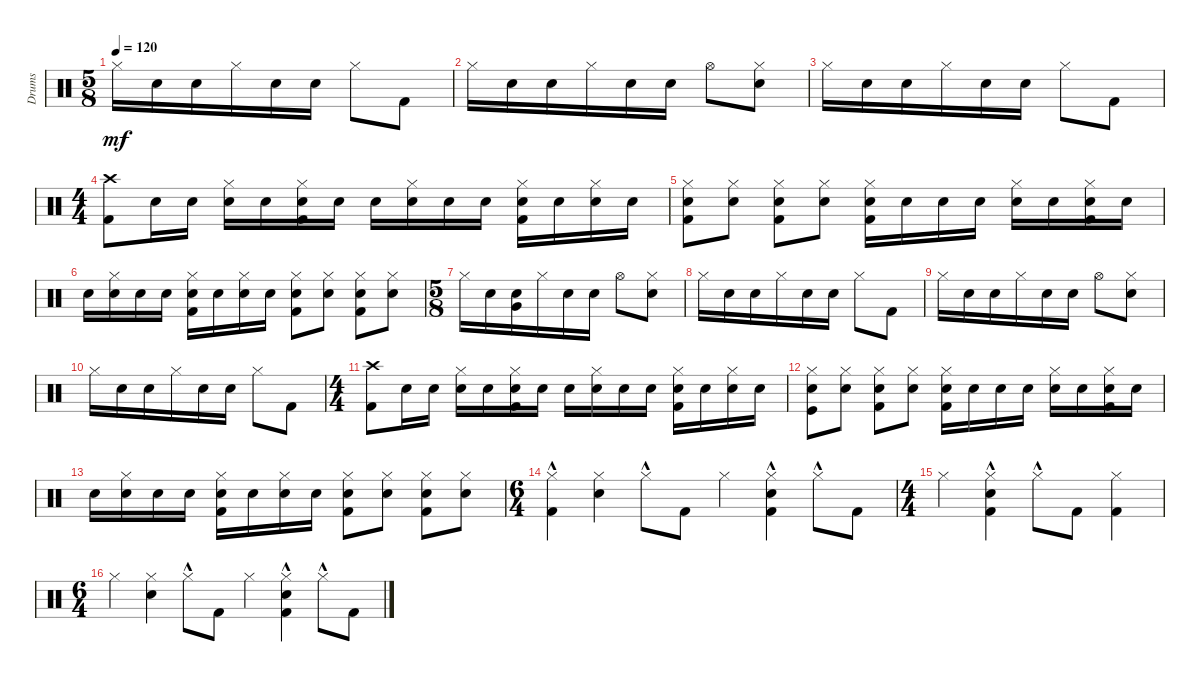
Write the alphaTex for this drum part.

\track ("Drums" "Drums") {instrument percussion}
\staff {score}
\articulation defaults
\ts (5 8)
\tempo 120
\clef neutral
\ks c "Hi-Hat (closed)".16{dy mf} "Snare (hit) 2".16 "Snare (hit) 2".16 "Hi-Hat (closed)".16 "Snare (hit) 2".16 "Snare (hit) 2".16 "Hi-Hat (closed)".8 "Kick (hit) 2".8
|
"Hi-Hat (closed)".16 "Snare (hit) 2".16 "Snare (hit) 2".16 "Hi-Hat (closed)".16 "Snare (hit) 2".16 "Snare (hit) 2".16 "Hi-Hat (open)".8 ("Snare (hit) 2" "Hi-Hat (closed)").8 |
"Hi-Hat (closed)".16 "Snare (hit) 2".16 "Snare (hit) 2".16 "Hi-Hat (closed)".16 "Snare (hit) 2".16 "Snare (hit) 2".16 "Hi-Hat (closed)".8 "Kick (hit) 2".8 |
\ts (4 4)
("Kick (hit) 2" "Crash high (hit)").8 "Electric Snare (hit)".16 "Electric Snare (hit)".16 ("Electric Snare (hit)" "Hi-Hat (closed)").16 "Electric Snare (hit)".16 ("Kick (hit) 2" "Electric Snare (hit)" "Hi-Hat (closed)").16 "Electric Snare (hit)".16 "Electric Snare (hit)".16 ("Electric Snare (hit)" "Hi-Hat (closed)").16 "Electric Snare (hit)".16 "Electric Snare (hit)".16 ("Kick (hit) 2" "Electric Snare (hit)" "Hi-Hat (closed)").16 "Electric Snare (hit)".16 ("Electric Snare (hit)" "Hi-Hat (closed)").16 "Electric Snare (hit)".16 |
("Kick (hit) 2" "Electric Snare (hit)" "Hi-Hat (closed)").8 ("Electric Snare (hit)" "Hi-Hat (closed)").8 ("Kick (hit) 2" "Electric Snare (hit)" "Hi-Hat (closed)").8 ("Electric Snare (hit)" "Hi-Hat (closed)").8 ("Kick (hit) 2" "Electric Snare (hit)" "Hi-Hat (closed)").16 "Electric Snare (hit)".16 "Electric Snare (hit)".16 "Electric Snare (hit)".16 ("Electric Snare (hit)" "Hi-Hat (closed)").16 "Electric Snare (hit)".16 ("Kick (hit) 2" "Electric Snare (hit)" "Hi-Hat (closed)").16 "Electric Snare (hit)".16 |
"Electric Snare (hit)".16 ("Electric Snare (hit)" "Hi-Hat (closed)").16 "Electric Snare (hit)".16 "Electric Snare (hit)".16 ("Kick (hit) 2" "Electric Snare (hit)" "Hi-Hat (closed)").16 "Electric Snare (hit)".16 ("Electric Snare (hit)" "Hi-Hat (closed)").16 "Electric Snare (hit)".16 ("Kick (hit) 2" "Electric Snare (hit)" "Hi-Hat (closed)").8 ("Electric Snare (hit)" "Hi-Hat (closed)").8 ("Kick (hit) 2" "Electric Snare (hit)" "Hi-Hat (closed)").8 ("Electric Snare (hit)" "Hi-Hat (closed)").8 |
\ts (5 8)
"Hi-Hat (closed)".16 "Snare (hit) 2".16 ("Snare (hit) 2" "Very Low Tom (hit)").16 "Hi-Hat (closed)".16 "Snare (hit) 2".16 "Snare (hit) 2".16 "Hi-Hat (open)".8 ("Snare (hit) 2" "Hi-Hat (closed)").8 |
"Hi-Hat (closed)".16 "Snare (hit) 2".16 "Snare (hit) 2".16 "Hi-Hat (closed)".16 "Snare (hit) 2".16 "Snare (hit) 2".16 "Hi-Hat (closed)".8 "Kick (hit) 2".8 |
"Hi-Hat (closed)".16 "Snare (hit) 2".16 "Snare (hit) 2".16 "Hi-Hat (closed)".16 "Snare (hit) 2".16 "Snare (hit) 2".16 "Hi-Hat (open)".8 ("Snare (hit) 2" "Hi-Hat (closed)").8 |
"Hi-Hat (closed)".16 "Snare (hit) 2".16 "Snare (hit) 2".16 "Hi-Hat (closed)".16 "Snare (hit) 2".16 "Snare (hit) 2".16 "Hi-Hat (closed)".8 "Kick (hit) 2".8 |
\ts (4 4)
("Kick (hit) 2" "Crash high (hit)").8 "Electric Snare (hit)".16 "Electric Snare (hit)".16 ("Electric Snare (hit)" "Hi-Hat (closed)").16 "Electric Snare (hit)".16 ("Kick (hit) 2" "Electric Snare (hit)" "Hi-Hat (closed)").16 "Electric Snare (hit)".16 "Electric Snare (hit)".16 ("Electric Snare (hit)" "Hi-Hat (closed)").16 "Electric Snare (hit)".16 "Electric Snare (hit)".16 ("Kick (hit) 2" "Electric Snare (hit)" "Hi-Hat (closed)").16 "Electric Snare (hit)".16 ("Electric Snare (hit)" "Hi-Hat (closed)").16 "Electric Snare (hit)".16 |
("Kick (hit)" "Electric Snare (hit)" "Hi-Hat (closed)").8 ("Electric Snare (hit)" "Hi-Hat (closed)").8 ("Kick (hit) 2" "Electric Snare (hit)" "Hi-Hat (closed)").8 ("Electric Snare (hit)" "Hi-Hat (closed)").8 ("Kick (hit) 2" "Electric Snare (hit)" "Hi-Hat (closed)").16 "Electric Snare (hit)".16 "Electric Snare (hit)".16 "Electric Snare (hit)".16 ("Electric Snare (hit)" "Hi-Hat (closed)").16 "Electric Snare (hit)".16 ("Kick (hit) 2" "Electric Snare (hit)" "Hi-Hat (closed)").16 "Electric Snare (hit)".16 |
"Electric Snare (hit)".16 ("Electric Snare (hit)" "Hi-Hat (closed)").16 "Electric Snare (hit)".16 "Electric Snare (hit)".16 ("Kick (hit) 2" "Electric Snare (hit)" "Hi-Hat (closed)").16 "Electric Snare (hit)".16 ("Electric Snare (hit)" "Hi-Hat (closed)").16 "Electric Snare (hit)".16 ("Kick (hit) 2" "Electric Snare (hit)" "Hi-Hat (closed)").8 ("Electric Snare (hit)" "Hi-Hat (closed)").8 ("Kick (hit) 2" "Electric Snare (hit)" "Hi-Hat (closed)").8 ("Electric Snare (hit)" "Hi-Hat (closed)").8 |
\ts (6 4)
("Kick (hit) 2"{hac} "Hi-Hat (closed)").4 ("Snare (hit) 2" "Hi-Hat (closed)").4 "Hi-Hat (closed)"{hac}.8 "Kick (hit) 2".8 "Hi-Hat (closed)".4 ("Kick (hit) 2"{hac} "Snare (hit) 2" "Hi-Hat (closed)").4 "Hi-Hat (closed)"{hac}.8 "Kick (hit) 2".8 |
\ts (4 4)
"Hi-Hat (closed)".4 ("Kick (hit) 2"{hac} "Snare (hit) 2" "Hi-Hat (closed)").4 "Hi-Hat (closed)"{hac}.8 "Kick (hit) 2".8 ("Kick (hit) 2" "Hi-Hat (closed)").4 |
\ts (6 4)
"Hi-Hat (closed)".4 ("Snare (hit) 2" "Hi-Hat (closed)").4 "Hi-Hat (closed)"{hac}.8 "Kick (hit) 2".8 "Hi-Hat (closed)".4 ("Kick (hit) 2"{hac} "Snare (hit) 2" "Hi-Hat (closed)").4 "Hi-Hat (closed)"{hac}.8 "Kick (hit) 2".8
